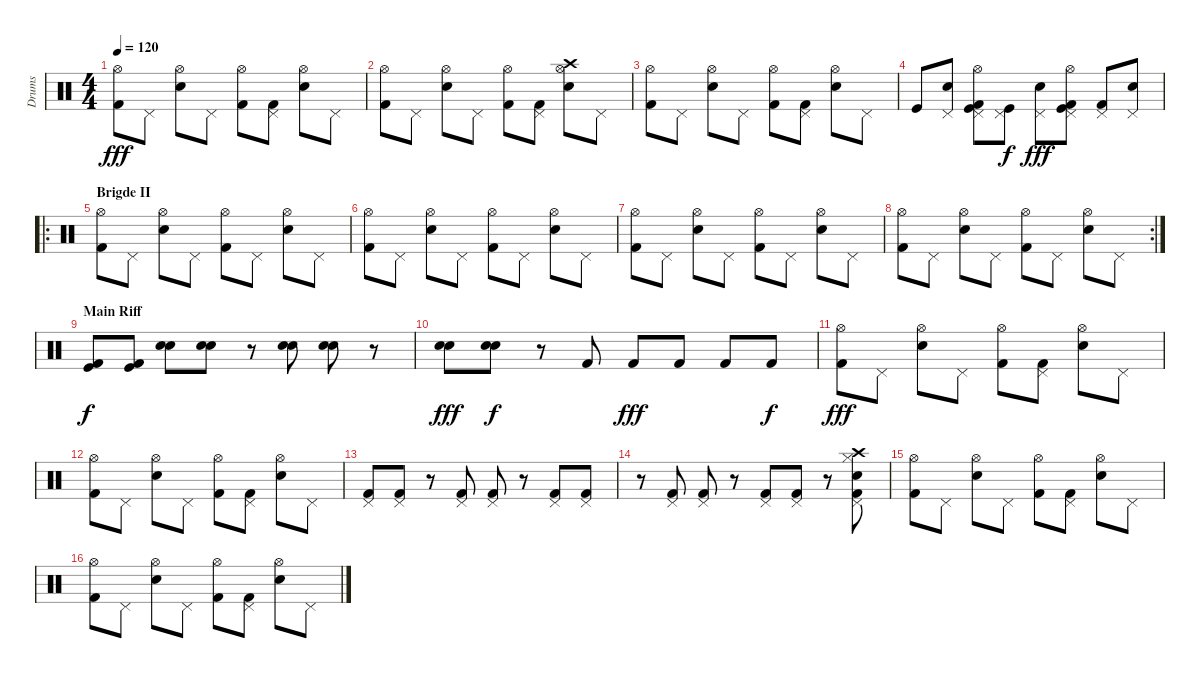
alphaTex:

\track ("Drums" "Drums") {instrument percussion}
\staff {score}
\articulation defaults
\ts (4 4)
\tempo 120
\clef neutral
\ks c
("Hi-Hat (open)" "Kick (hit) 2").8{dy fff} "Pedal Hi-Hat (hit)".8 ("Hi-Hat (open)" "Snare (hit) 2").8 "Pedal Hi-Hat (hit)".8 ("Hi-Hat (open)" "Kick (hit) 2").8 ("Pedal Hi-Hat (hit)" "Kick (hit) 2").8 ("Hi-Hat (open)" "Snare (hit) 2").8 "Pedal Hi-Hat (hit)".8 |
("Hi-Hat (open)" "Kick (hit) 2").8 "Pedal Hi-Hat (hit)".8 ("Hi-Hat (open)" "Snare (hit) 2").8 "Pedal Hi-Hat (hit)".8 ("Hi-Hat (open)" "Kick (hit) 2").8 ("Pedal Hi-Hat (hit)" "Kick (hit) 2").8 ("Hi-Hat (open)" "Snare (hit) 2" "Crash high (hit)").8 "Pedal Hi-Hat (hit)".8 |
("Hi-Hat (open)" "Kick (hit) 2").8 "Pedal Hi-Hat (hit)".8 ("Hi-Hat (open)" "Snare (hit) 2").8 "Pedal Hi-Hat (hit)".8 ("Hi-Hat (open)" "Kick (hit) 2").8 ("Pedal Hi-Hat (hit)" "Kick (hit) 2").8 ("Hi-Hat (open)" "Snare (hit) 2").8 "Pedal Hi-Hat (hit)".8 |
"Kick (hit)".8 ("Pedal Hi-Hat (hit)" "Snare (hit) 2").8 ("Hi-Hat (open)" "Pedal Hi-Hat (hit)" "Kick (hit)" "Kick (hit) 2").8 ("Kick (hit)" "Pedal Hi-Hat (hit)").8{dy f} ("Pedal Hi-Hat (hit)" "Snare (hit) 2").8{dy fff} ("Hi-Hat (open)" "Pedal Hi-Hat (hit)" "Kick (hit)" "Kick (hit) 2").8 ("Pedal Hi-Hat (hit)" "Kick (hit) 2").8 ("Pedal Hi-Hat (hit)" "Snare (hit) 2").8 |
\ro
\section ("" "Brigde II")
("Hi-Hat (open)" "Kick (hit) 2").8 "Pedal Hi-Hat (hit)".8 ("Hi-Hat (open)" "Snare (hit) 2").8 "Pedal Hi-Hat (hit)".8 ("Hi-Hat (open)" "Kick (hit) 2").8 "Pedal Hi-Hat (hit)".8 ("Hi-Hat (open)" "Snare (hit) 2").8 "Pedal Hi-Hat (hit)".8 |
("Hi-Hat (open)" "Kick (hit) 2").8 "Pedal Hi-Hat (hit)".8 ("Hi-Hat (open)" "Snare (hit) 2").8 "Pedal Hi-Hat (hit)".8 ("Hi-Hat (open)" "Kick (hit) 2").8 "Pedal Hi-Hat (hit)".8 ("Hi-Hat (open)" "Snare (hit) 2").8 "Pedal Hi-Hat (hit)".8 |
("Hi-Hat (open)" "Kick (hit) 2").8 "Pedal Hi-Hat (hit)".8 ("Hi-Hat (open)" "Snare (hit) 2").8 "Pedal Hi-Hat (hit)".8 ("Hi-Hat (open)" "Kick (hit) 2").8 "Pedal Hi-Hat (hit)".8 ("Hi-Hat (open)" "Snare (hit) 2").8 "Pedal Hi-Hat (hit)".8 |
\rc 2
("Hi-Hat (open)" "Kick (hit) 2").8 "Pedal Hi-Hat (hit)".8 ("Hi-Hat (open)" "Snare (hit) 2").8 "Pedal Hi-Hat (hit)".8 ("Hi-Hat (open)" "Kick (hit) 2").8 "Pedal Hi-Hat (hit)".8 ("Hi-Hat (open)" "Snare (hit) 2").8 "Pedal Hi-Hat (hit)".8 |
\section ("" "Main Riff")
("Kick (hit)" "Kick (hit) 2").8{dy f} ("Kick (hit)" "Kick (hit) 2").8 ("Snare (hit) 2" "Electric Snare (hit)").8 ("Snare (hit) 2" "Electric Snare (hit)").8 r.8 ("Snare (hit) 2" "Electric Snare (hit)").8 ("Snare (hit) 2" "Electric Snare (hit)").8 r.8 |
("Snare (hit) 2" "Electric Snare (hit)").8{dy fff} ("Snare (hit) 2" "Electric Snare (hit)").8{dy f} r.8 "Kick (hit) 2".8 "Kick (hit) 2".8{dy fff} "Kick (hit) 2".8 "Kick (hit) 2".8 "Kick (hit) 2".8{dy f} |
("Hi-Hat (open)" "Kick (hit) 2").8{dy fff} "Pedal Hi-Hat (hit)".8 ("Hi-Hat (open)" "Snare (hit) 2").8 "Pedal Hi-Hat (hit)".8 ("Hi-Hat (open)" "Kick (hit) 2").8 ("Pedal Hi-Hat (hit)" "Kick (hit) 2").8 ("Hi-Hat (open)" "Snare (hit) 2").8 "Pedal Hi-Hat (hit)".8 |
("Hi-Hat (open)" "Kick (hit) 2").8 "Pedal Hi-Hat (hit)".8 ("Hi-Hat (open)" "Snare (hit) 2").8 "Pedal Hi-Hat (hit)".8 ("Hi-Hat (open)" "Kick (hit) 2").8 ("Pedal Hi-Hat (hit)" "Kick (hit) 2").8 ("Hi-Hat (open)" "Snare (hit) 2").8 "Pedal Hi-Hat (hit)".8 |
("Pedal Hi-Hat (hit)" "Kick (hit) 2").8 ("Pedal Hi-Hat (hit)" "Kick (hit) 2").8 r.8 ("Pedal Hi-Hat (hit)" "Kick (hit) 2").8 ("Pedal Hi-Hat (hit)" "Kick (hit) 2").8 r.8 ("Pedal Hi-Hat (hit)" "Kick (hit) 2").8 ("Pedal Hi-Hat (hit)" "Kick (hit) 2").8 |
r.8 ("Pedal Hi-Hat (hit)" "Kick (hit) 2").8 ("Pedal Hi-Hat (hit)" "Kick (hit) 2").8 r.8 ("Pedal Hi-Hat (hit)" "Kick (hit) 2").8 ("Pedal Hi-Hat (hit)" "Kick (hit) 2").8 r.8 ("Pedal Hi-Hat (hit)" "Kick (hit) 2" "Crash high (hit)" "Snare (hit) 2" "Hi-Hat (closed)").8 |
("Hi-Hat (open)" "Kick (hit) 2").8 "Pedal Hi-Hat (hit)".8 ("Hi-Hat (open)" "Snare (hit) 2").8 "Pedal Hi-Hat (hit)".8 ("Hi-Hat (open)" "Kick (hit) 2").8 ("Pedal Hi-Hat (hit)" "Kick (hit) 2").8 ("Hi-Hat (open)" "Snare (hit) 2").8 "Pedal Hi-Hat (hit)".8 |
("Hi-Hat (open)" "Kick (hit) 2").8 "Pedal Hi-Hat (hit)".8 ("Hi-Hat (open)" "Snare (hit) 2").8 "Pedal Hi-Hat (hit)".8 ("Hi-Hat (open)" "Kick (hit) 2").8 ("Pedal Hi-Hat (hit)" "Kick (hit) 2").8 ("Hi-Hat (open)" "Snare (hit) 2").8 "Pedal Hi-Hat (hit)".8
